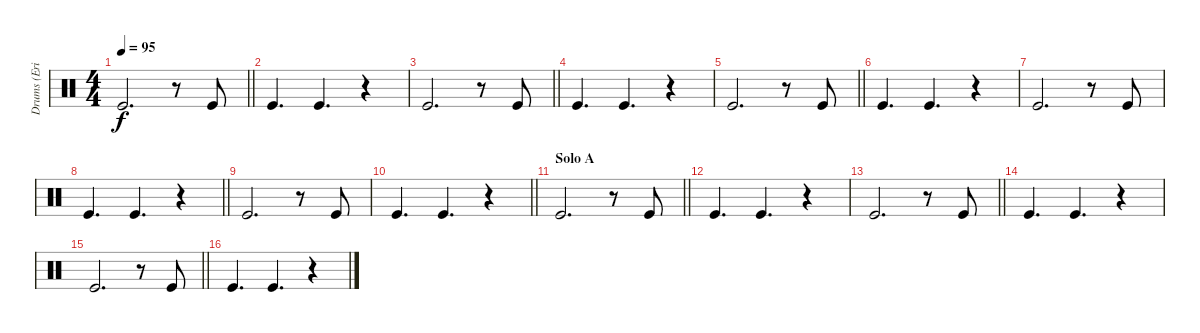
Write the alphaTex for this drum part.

\track ("Drums (Eric Singer)" "Drums (Eri") {instrument percussion}
\staff {score}
\articulation defaults
\ts (4 4)
\tempo 95
\clef neutral
\barLineRight lightlight
\ks c "Kick (hit)".2{d dy f}
r.8 "Kick (hit)".8 |
"Kick (hit)".4{d} "Kick (hit)".4{d} r.4 |
\barLineRight lightlight "Kick (hit)".2{d}
r.8 "Kick (hit)".8 |
"Kick (hit)".4{d} "Kick (hit)".4{d} r.4 |
\barLineRight lightlight "Kick (hit)".2{d}
r.8 "Kick (hit)".8 |
"Kick (hit)".4{d} "Kick (hit)".4{d} r.4 |
"Kick (hit)".2{d} r.8 "Kick (hit)".8 |
\barLineRight lightlight "Kick (hit)".4{d} "Kick (hit)".4{d}
r.4 |
"Kick (hit)".2{d} r.8 "Kick (hit)".8 |
\barLineRight lightlight "Kick (hit)".4{d} "Kick (hit)".4{d}
r.4 |
\section ("" "Solo A")
\barLineRight lightlight "Kick (hit)".2{d}
r.8 "Kick (hit)".8 |
"Kick (hit)".4{d} "Kick (hit)".4{d} r.4 |
\barLineRight lightlight "Kick (hit)".2{d}
r.8 "Kick (hit)".8 |
"Kick (hit)".4{d} "Kick (hit)".4{d} r.4 |
\barLineRight lightlight "Kick (hit)".2{d}
r.8 "Kick (hit)".8 |
"Kick (hit)".4{d} "Kick (hit)".4{d} r.4
